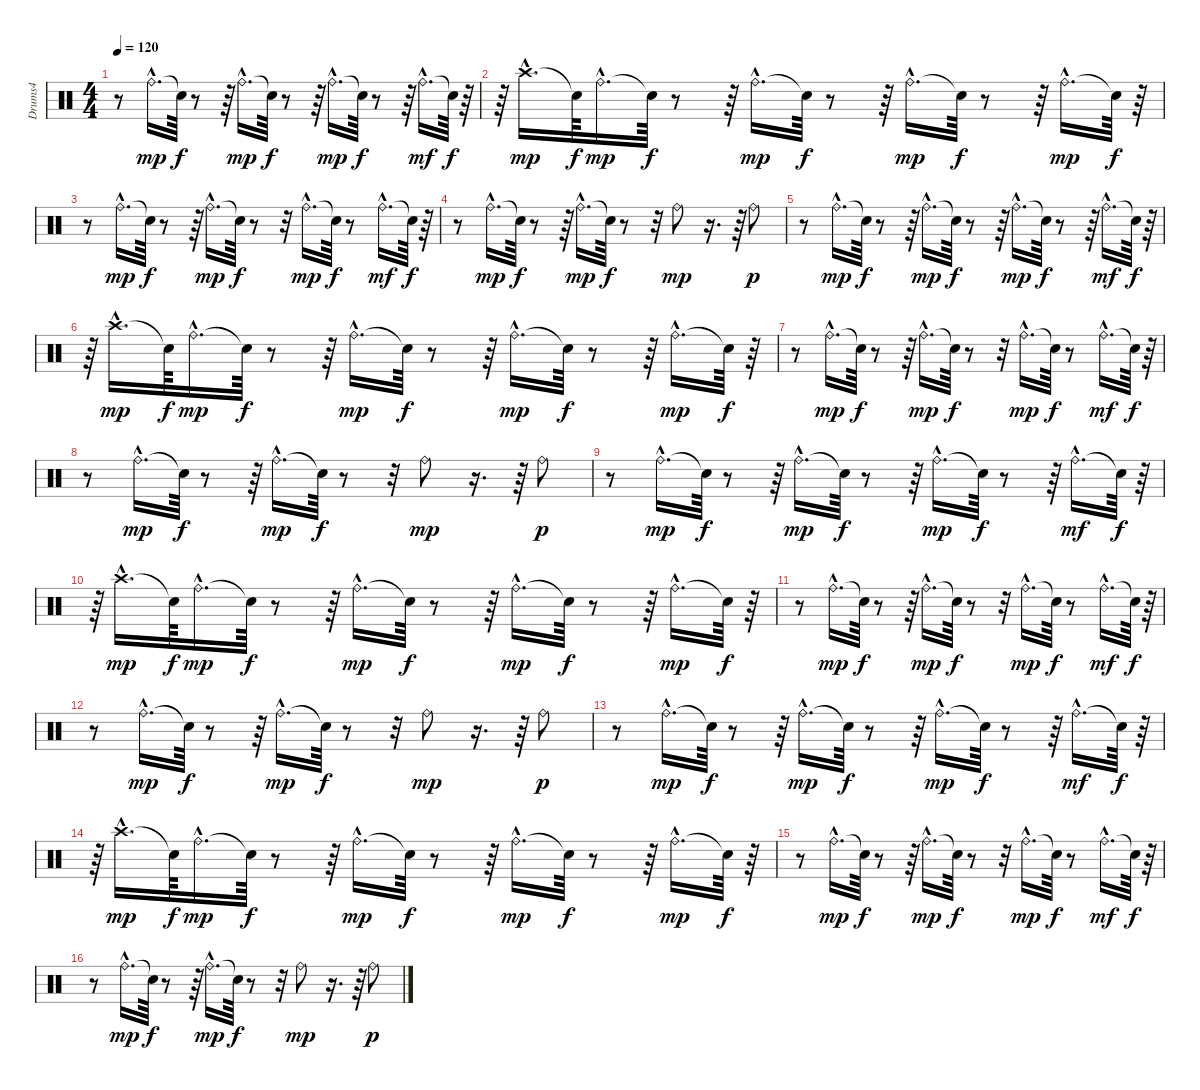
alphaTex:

\track ("Drums4" "Drums4") {instrument percussion}
\staff {score}
\articulation defaults
\ts (4 4)
\tempo 120
\clef neutral
\ks c
r.8{dy p} "Ride (bell)"{hac}.16{d dy mp} "Snare (hit)"{t}.64{dy f} r.8 r.64 "Ride (bell)"{hac}.16{d dy mp} "Snare (hit)"{t}.64{dy f} r.8 r.64 "Ride (bell)"{hac}.16{d dy mp} "Snare (hit)"{t}.64{dy f} r.8 r.64 "Ride (bell)"{hac}.16{d dy mf} "Snare (hit)"{t}.64{dy f} r.64 |
r.64 "Crash high (hit)"{hac}.16{d dy mp} "Snare (hit)"{t}.64{dy f} "Ride (bell)"{hac}.16{d dy mp} "Snare (hit)"{t}.64{dy f} r.8 r.64 "Ride (bell)"{hac}.16{d dy mp} "Snare (hit)"{t}.64{dy f} r.8 r.64 "Ride (bell)"{hac}.16{d dy mp} "Snare (hit)"{t}.64{dy f} r.8 r.64 "Ride (bell)"{hac}.16{d dy mp} "Snare (hit)"{t}.64{dy f} r.64 |
r.8 "Ride (bell)"{hac}.16{d dy mp} "Snare (hit)"{t}.64{dy f} r.8 r.64 "Ride (bell)"{hac}.16{d dy mp} "Snare (hit)"{t}.64{dy f} r.8 r.32 "Ride (bell)"{hac}.16{d dy mp} "Snare (hit)"{t}.64{dy f} r.8 "Ride (bell)"{hac}.16{d dy mf} "Snare (hit)"{t}.64{dy f} r.64 |
r.8 "Ride (bell)"{hac}.16{d dy mp} "Snare (hit)"{t}.64{dy f} r.8 r.64 "Ride (bell)"{hac}.16{d dy mp} "Snare (hit)"{t}.64{dy f} r.8 r.32 "Ride (bell)".8{dy mp} r.16{d} r.64 "Ride (bell)".8{dy p} |
r.8 "Ride (bell)"{hac}.16{d dy mp} "Snare (hit)"{t}.64{dy f} r.8 r.64 "Ride (bell)"{hac}.16{d dy mp} "Snare (hit)"{t}.64{dy f} r.8 r.64 "Ride (bell)"{hac}.16{d dy mp} "Snare (hit)"{t}.64{dy f} r.8 r.64 "Ride (bell)"{hac}.16{d dy mf} "Snare (hit)"{t}.64{dy f} r.64 |
r.64 "Crash high (hit)"{hac}.16{d dy mp} "Snare (hit)"{t}.64{dy f} "Ride (bell)"{hac}.16{d dy mp} "Snare (hit)"{t}.64{dy f} r.8 r.64 "Ride (bell)"{hac}.16{d dy mp} "Snare (hit)"{t}.64{dy f} r.8 r.64 "Ride (bell)"{hac}.16{d dy mp} "Snare (hit)"{t}.64{dy f} r.8 r.64 "Ride (bell)"{hac}.16{d dy mp} "Snare (hit)"{t}.64{dy f} r.64 |
r.8 "Ride (bell)"{hac}.16{d dy mp} "Snare (hit)"{t}.64{dy f} r.8 r.64 "Ride (bell)"{hac}.16{d dy mp} "Snare (hit)"{t}.64{dy f} r.8 r.32 "Ride (bell)"{hac}.16{d dy mp} "Snare (hit)"{t}.64{dy f} r.8 "Ride (bell)"{hac}.16{d dy mf} "Snare (hit)"{t}.64{dy f} r.64 |
r.8 "Ride (bell)"{hac}.16{d dy mp} "Snare (hit)"{t}.64{dy f} r.8 r.64 "Ride (bell)"{hac}.16{d dy mp} "Snare (hit)"{t}.64{dy f} r.8 r.32 "Ride (bell)".8{dy mp} r.16{d} r.64 "Ride (bell)".8{dy p} |
r.8 "Ride (bell)"{hac}.16{d dy mp} "Snare (hit)"{t}.64{dy f} r.8 r.64 "Ride (bell)"{hac}.16{d dy mp} "Snare (hit)"{t}.64{dy f} r.8 r.64 "Ride (bell)"{hac}.16{d dy mp} "Snare (hit)"{t}.64{dy f} r.8 r.64 "Ride (bell)"{hac}.16{d dy mf} "Snare (hit)"{t}.64{dy f} r.64 |
r.64 "Crash high (hit)"{hac}.16{d dy mp} "Snare (hit)"{t}.64{dy f} "Ride (bell)"{hac}.16{d dy mp} "Snare (hit)"{t}.64{dy f} r.8 r.64 "Ride (bell)"{hac}.16{d dy mp} "Snare (hit)"{t}.64{dy f} r.8 r.64 "Ride (bell)"{hac}.16{d dy mp} "Snare (hit)"{t}.64{dy f} r.8 r.64 "Ride (bell)"{hac}.16{d dy mp} "Snare (hit)"{t}.64{dy f} r.64 |
r.8 "Ride (bell)"{hac}.16{d dy mp} "Snare (hit)"{t}.64{dy f} r.8 r.64 "Ride (bell)"{hac}.16{d dy mp} "Snare (hit)"{t}.64{dy f} r.8 r.32 "Ride (bell)"{hac}.16{d dy mp} "Snare (hit)"{t}.64{dy f} r.8 "Ride (bell)"{hac}.16{d dy mf} "Snare (hit)"{t}.64{dy f} r.64 |
r.8 "Ride (bell)"{hac}.16{d dy mp} "Snare (hit)"{t}.64{dy f} r.8 r.64 "Ride (bell)"{hac}.16{d dy mp} "Snare (hit)"{t}.64{dy f} r.8 r.32 "Ride (bell)".8{dy mp} r.16{d} r.64 "Ride (bell)".8{dy p} |
r.8 "Ride (bell)"{hac}.16{d dy mp} "Snare (hit)"{t}.64{dy f} r.8 r.64 "Ride (bell)"{hac}.16{d dy mp} "Snare (hit)"{t}.64{dy f} r.8 r.64 "Ride (bell)"{hac}.16{d dy mp} "Snare (hit)"{t}.64{dy f} r.8 r.64 "Ride (bell)"{hac}.16{d dy mf} "Snare (hit)"{t}.64{dy f} r.64 |
r.64 "Crash high (hit)"{hac}.16{d dy mp} "Snare (hit)"{t}.64{dy f} "Ride (bell)"{hac}.16{d dy mp} "Snare (hit)"{t}.64{dy f} r.8 r.64 "Ride (bell)"{hac}.16{d dy mp} "Snare (hit)"{t}.64{dy f} r.8 r.64 "Ride (bell)"{hac}.16{d dy mp} "Snare (hit)"{t}.64{dy f} r.8 r.64 "Ride (bell)"{hac}.16{d dy mp} "Snare (hit)"{t}.64{dy f} r.64 |
r.8 "Ride (bell)"{hac}.16{d dy mp} "Snare (hit)"{t}.64{dy f} r.8 r.64 "Ride (bell)"{hac}.16{d dy mp} "Snare (hit)"{t}.64{dy f} r.8 r.32 "Ride (bell)"{hac}.16{d dy mp} "Snare (hit)"{t}.64{dy f} r.8 "Ride (bell)"{hac}.16{d dy mf} "Snare (hit)"{t}.64{dy f} r.64 |
r.8 "Ride (bell)"{hac}.16{d dy mp} "Snare (hit)"{t}.64{dy f} r.8 r.64 "Ride (bell)"{hac}.16{d dy mp} "Snare (hit)"{t}.64{dy f} r.8 r.32 "Ride (bell)".8{dy mp} r.16{d} r.64 "Ride (bell)".8{dy p}
